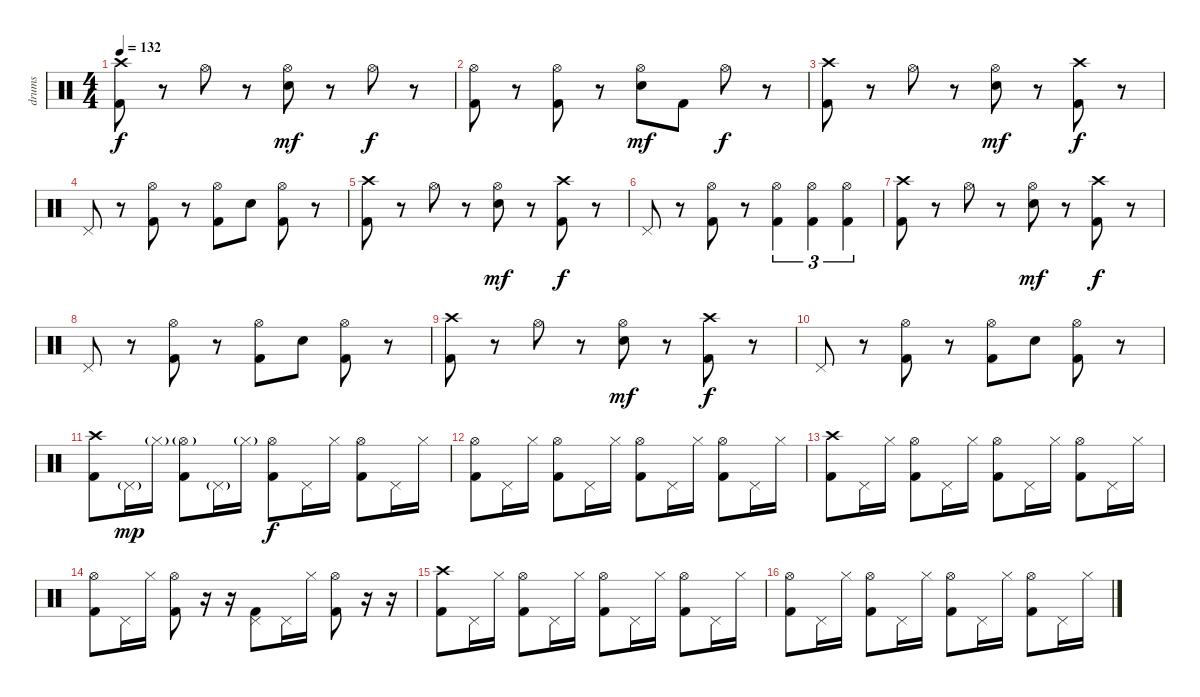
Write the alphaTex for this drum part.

\track ("drums" "drums") {instrument percussion}
\staff {score}
\articulation defaults
\ts (4 4)
\tempo 132
\clef neutral
\ks c
("Crash high (hit)" "Kick (hit) 2").8{dy f} r.8 "Hi-Hat (open)".8 r.8 ("Hi-Hat (open)" "Snare (hit) 2").8{dy mf} r.8 "Hi-Hat (open)".8{dy f} r.8 |
("Hi-Hat (open)" "Kick (hit) 2").8 r.8 ("Hi-Hat (open)" "Kick (hit) 2").8 r.8 ("Hi-Hat (open)" "Snare (hit) 2").8{dy mf} "Kick (hit) 2".8 "Hi-Hat (open)".8{dy f} r.8 |
("Crash high (hit)" "Kick (hit) 2").8 r.8 "Hi-Hat (open)".8 r.8 ("Hi-Hat (open)" "Snare (hit) 2").8{dy mf} r.8 ("Crash high (hit)" "Kick (hit) 2").8{dy f} r.8 |
"Pedal Hi-Hat (hit)".8 r.8 ("Hi-Hat (open)" "Kick (hit) 2").8 r.8 ("Hi-Hat (open)" "Kick (hit) 2").8 "Snare (hit) 2".8 ("Hi-Hat (open)" "Kick (hit) 2").8 r.8 |
("Crash high (hit)" "Kick (hit) 2").8 r.8 "Hi-Hat (open)".8 r.8 ("Hi-Hat (open)" "Snare (hit) 2").8{dy mf} r.8 ("Crash high (hit)" "Kick (hit) 2").8{dy f} r.8 |
"Pedal Hi-Hat (hit)".8 r.8 ("Hi-Hat (open)" "Kick (hit) 2").8 r.8 ("Hi-Hat (open)" "Kick (hit) 2").4{tu (3 2)} ("Hi-Hat (open)" "Kick (hit) 2").4{tu (3 2)} ("Hi-Hat (open)" "Kick (hit) 2").4{tu (3 2)} |
("Crash high (hit)" "Kick (hit) 2").8 r.8 "Hi-Hat (open)".8 r.8 ("Hi-Hat (open)" "Snare (hit) 2").8{dy mf} r.8 ("Crash high (hit)" "Kick (hit) 2").8{dy f} r.8 |
"Pedal Hi-Hat (hit)".8 r.8 ("Hi-Hat (open)" "Kick (hit) 2").8 r.8 ("Hi-Hat (open)" "Kick (hit) 2").8 "Snare (hit) 2".8 ("Hi-Hat (open)" "Kick (hit) 2").8 r.8 |
("Crash high (hit)" "Kick (hit) 2").8 r.8 "Hi-Hat (open)".8 r.8 ("Hi-Hat (open)" "Snare (hit) 2").8{dy mf} r.8 ("Crash high (hit)" "Kick (hit) 2").8{dy f} r.8 |
"Pedal Hi-Hat (hit)".8 r.8 ("Hi-Hat (open)" "Kick (hit) 2").8 r.8 ("Hi-Hat (open)" "Kick (hit) 2").8 "Snare (hit) 2".8 ("Hi-Hat (open)" "Kick (hit) 2").8 r.8 |
("Crash high (hit)" "Kick (hit) 2").8 "Pedal Hi-Hat (hit)"{g}.16{dy mp} "Hi-Hat (closed)"{g}.16 ("Hi-Hat (open)"{g} "Kick (hit) 2").8 "Pedal Hi-Hat (hit)"{g}.16 "Hi-Hat (closed)"{g}.16 ("Hi-Hat (open)" "Kick (hit) 2").8{dy f} "Pedal Hi-Hat (hit)".16 "Hi-Hat (closed)".16 ("Hi-Hat (open)" "Kick (hit) 2").8 "Pedal Hi-Hat (hit)".16 "Hi-Hat (closed)".16 |
("Hi-Hat (open)" "Kick (hit) 2").8 "Pedal Hi-Hat (hit)".16 "Hi-Hat (closed)".16 ("Hi-Hat (open)" "Kick (hit) 2").8 "Pedal Hi-Hat (hit)".16 "Hi-Hat (closed)".16 ("Hi-Hat (open)" "Kick (hit) 2").8 "Pedal Hi-Hat (hit)".16 "Hi-Hat (closed)".16 ("Hi-Hat (open)" "Kick (hit) 2").8 "Pedal Hi-Hat (hit)".16 "Hi-Hat (closed)".16 |
("Crash high (hit)" "Kick (hit) 2").8 "Pedal Hi-Hat (hit)".16 "Hi-Hat (closed)".16 ("Hi-Hat (open)" "Kick (hit) 2").8 "Pedal Hi-Hat (hit)".16 "Hi-Hat (closed)".16 ("Hi-Hat (open)" "Kick (hit) 2").8 "Pedal Hi-Hat (hit)".16 "Hi-Hat (closed)".16 ("Hi-Hat (open)" "Kick (hit) 2").8 "Pedal Hi-Hat (hit)".16 "Hi-Hat (closed)".16 |
("Hi-Hat (open)" "Kick (hit) 2").8 "Pedal Hi-Hat (hit)".16 "Hi-Hat (closed)".16 ("Hi-Hat (open)" "Kick (hit) 2").8 r.16 r.16 ("Pedal Hi-Hat (hit)" "Kick (hit) 2").8 "Pedal Hi-Hat (hit)".16 "Hi-Hat (closed)".16 ("Hi-Hat (open)" "Kick (hit) 2").8 r.16 r.16 |
("Crash high (hit)" "Kick (hit) 2").8 "Pedal Hi-Hat (hit)".16 "Hi-Hat (closed)".16 ("Hi-Hat (open)" "Kick (hit) 2").8 "Pedal Hi-Hat (hit)".16 "Hi-Hat (closed)".16 ("Hi-Hat (open)" "Kick (hit) 2").8 "Pedal Hi-Hat (hit)".16 "Hi-Hat (closed)".16 ("Hi-Hat (open)" "Kick (hit) 2").8 "Pedal Hi-Hat (hit)".16 "Hi-Hat (closed)".16 |
("Hi-Hat (open)" "Kick (hit) 2").8 "Pedal Hi-Hat (hit)".16 "Hi-Hat (closed)".16 ("Hi-Hat (open)" "Kick (hit) 2").8 "Pedal Hi-Hat (hit)".16 "Hi-Hat (closed)".16 ("Hi-Hat (open)" "Kick (hit) 2").8 "Pedal Hi-Hat (hit)".16 "Hi-Hat (closed)".16 ("Hi-Hat (open)" "Kick (hit) 2").8 "Pedal Hi-Hat (hit)".16 "Hi-Hat (closed)".16
